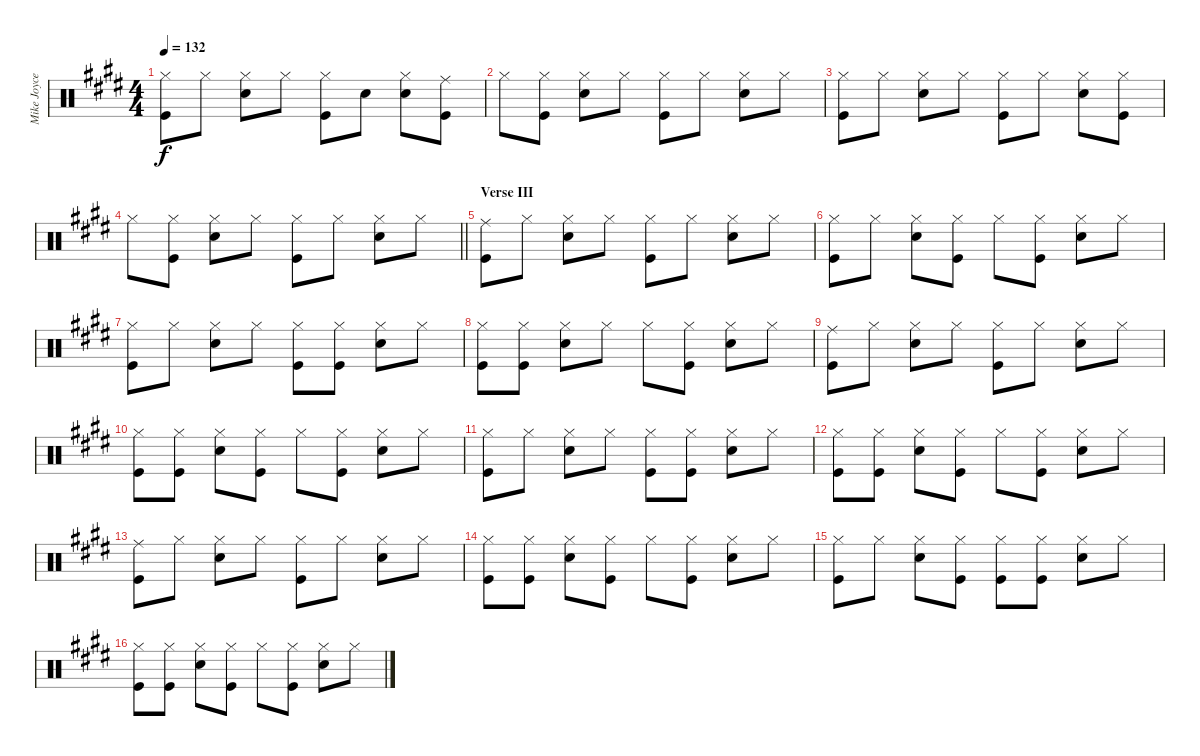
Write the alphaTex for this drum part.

\track ("Mike Joyce's drums" "Mike Joyce") {instrument percussion}
\staff {score}
\articulation defaults
\ts (4 4)
\tempo 132
\clef neutral
\ks e
("Kick (hit)" "Hi-Hat (closed)").8{dy f} "Hi-Hat (closed)".8 ("Hi-Hat (closed)" "Snare (hit) 2").8 "Hi-Hat (closed)".8 ("Hi-Hat (closed)" "Kick (hit)").8 "Snare (hit) 2".8 ("Snare (hit) 2" "Hi-Hat (closed)").8 ("Kick (hit)" "Ride (middle)").8 |
"Hi-Hat (closed)".8 ("Hi-Hat (closed)" "Kick (hit)").8 ("Snare (hit) 2" "Hi-Hat (closed)").8 "Hi-Hat (closed)".8 ("Hi-Hat (closed)" "Kick (hit)").8 "Hi-Hat (closed)".8 ("Hi-Hat (closed)" "Snare (hit) 2").8 "Hi-Hat (closed)".8 |
("Hi-Hat (closed)" "Kick (hit)").8 "Hi-Hat (closed)".8 ("Hi-Hat (closed)" "Snare (hit) 2").8 "Hi-Hat (closed)".8 ("Kick (hit)" "Hi-Hat (closed)").8 "Hi-Hat (closed)".8 ("Snare (hit) 2" "Hi-Hat (closed)").8 ("Hi-Hat (closed)" "Kick (hit)").8 |
\barLineRight lightlight "Hi-Hat (closed)".8
("Kick (hit)" "Hi-Hat (closed)").8 ("Snare (hit) 2" "Hi-Hat (closed)").8 "Hi-Hat (closed)".8 ("Hi-Hat (closed)" "Kick (hit)").8 "Hi-Hat (closed)".8 ("Snare (hit) 2" "Hi-Hat (closed)").8 "Hi-Hat (closed)".8 |
\section ("" "Verse III")
("Kick (hit)" "Ride (middle)").8 "Hi-Hat (closed)".8 ("Snare (hit) 2" "Hi-Hat (closed)").8 "Hi-Hat (closed)".8 ("Hi-Hat (closed)" "Kick (hit)").8 "Hi-Hat (closed)".8 ("Hi-Hat (closed)" "Snare (hit) 2").8 "Hi-Hat (closed)".8 |
("Kick (hit)" "Hi-Hat (closed)").8 "Hi-Hat (closed)".8 ("Hi-Hat (closed)" "Snare (hit) 2").8 ("Kick (hit)" "Hi-Hat (closed)").8 "Hi-Hat (closed)".8 ("Kick (hit)" "Hi-Hat (closed)").8 ("Hi-Hat (closed)" "Snare (hit) 2").8 "Hi-Hat (closed)".8 |
("Kick (hit)" "Hi-Hat (closed)").8 "Hi-Hat (closed)".8 ("Hi-Hat (closed)" "Snare (hit) 2").8 "Hi-Hat (closed)".8 ("Kick (hit)" "Hi-Hat (closed)").8 ("Kick (hit)" "Hi-Hat (closed)").8 ("Snare (hit) 2" "Hi-Hat (closed)").8 "Hi-Hat (closed)".8 |
("Kick (hit)" "Hi-Hat (closed)").8 ("Kick (hit)" "Hi-Hat (closed)").8 ("Hi-Hat (closed)" "Snare (hit) 2").8 "Hi-Hat (closed)".8 "Hi-Hat (closed)".8 ("Hi-Hat (closed)" "Kick (hit)").8 ("Snare (hit) 2" "Hi-Hat (closed)").8 "Hi-Hat (closed)".8 |
("Kick (hit)" "Ride (middle)").8 "Hi-Hat (closed)".8 ("Hi-Hat (closed)" "Snare (hit) 2").8 "Hi-Hat (closed)".8 ("Kick (hit)" "Hi-Hat (closed)").8 "Hi-Hat (closed)".8 ("Snare (hit) 2" "Hi-Hat (closed)").8 "Hi-Hat (closed)".8 |
("Hi-Hat (closed)" "Kick (hit)").8 ("Hi-Hat (closed)" "Kick (hit)").8 ("Snare (hit) 2" "Hi-Hat (closed)").8 ("Kick (hit)" "Hi-Hat (closed)").8 "Hi-Hat (closed)".8 ("Hi-Hat (closed)" "Kick (hit)").8 ("Snare (hit) 2" "Hi-Hat (closed)").8 "Hi-Hat (closed)".8 |
("Kick (hit)" "Hi-Hat (closed)").8 "Hi-Hat (closed)".8 ("Hi-Hat (closed)" "Snare (hit) 2").8 "Hi-Hat (closed)".8 ("Hi-Hat (closed)" "Kick (hit)").8 ("Hi-Hat (closed)" "Kick (hit)").8 ("Snare (hit) 2" "Hi-Hat (closed)").8 "Hi-Hat (closed)".8 |
("Kick (hit)" "Hi-Hat (closed)").8 ("Kick (hit)" "Hi-Hat (closed)").8 ("Hi-Hat (closed)" "Snare (hit) 2").8 ("Kick (hit)" "Hi-Hat (closed)").8 "Hi-Hat (closed)".8 ("Hi-Hat (closed)" "Kick (hit)").8 ("Snare (hit) 2" "Hi-Hat (closed)").8 "Hi-Hat (closed)".8 |
("Kick (hit)" "Ride (middle)").8 "Hi-Hat (closed)".8 ("Hi-Hat (closed)" "Snare (hit) 2").8 "Hi-Hat (closed)".8 ("Hi-Hat (closed)" "Kick (hit)").8 "Hi-Hat (closed)".8 ("Hi-Hat (closed)" "Snare (hit) 2").8 "Hi-Hat (closed)".8 |
("Hi-Hat (closed)" "Kick (hit)").8 ("Hi-Hat (closed)" "Kick (hit)").8 ("Snare (hit) 2" "Hi-Hat (closed)").8 ("Hi-Hat (closed)" "Kick (hit)").8 "Hi-Hat (closed)".8 ("Kick (hit)" "Hi-Hat (closed)").8 ("Snare (hit) 2" "Hi-Hat (closed)").8 "Hi-Hat (closed)".8 |
("Kick (hit)" "Hi-Hat (closed)").8 "Hi-Hat (closed)".8 ("Hi-Hat (closed)" "Snare (hit) 2").8 ("Kick (hit)" "Hi-Hat (closed)").8 ("Hi-Hat (closed)" "Kick (hit)").8 ("Hi-Hat (closed)" "Kick (hit)").8 ("Snare (hit) 2" "Hi-Hat (closed)").8 "Hi-Hat (closed)".8 |
("Kick (hit)" "Hi-Hat (closed)").8 ("Kick (hit)" "Hi-Hat (closed)").8 ("Snare (hit) 2" "Hi-Hat (closed)").8 ("Kick (hit)" "Hi-Hat (closed)").8 "Hi-Hat (closed)".8 ("Hi-Hat (closed)" "Kick (hit)").8 ("Snare (hit) 2" "Hi-Hat (closed)").8 "Hi-Hat (closed)".8
